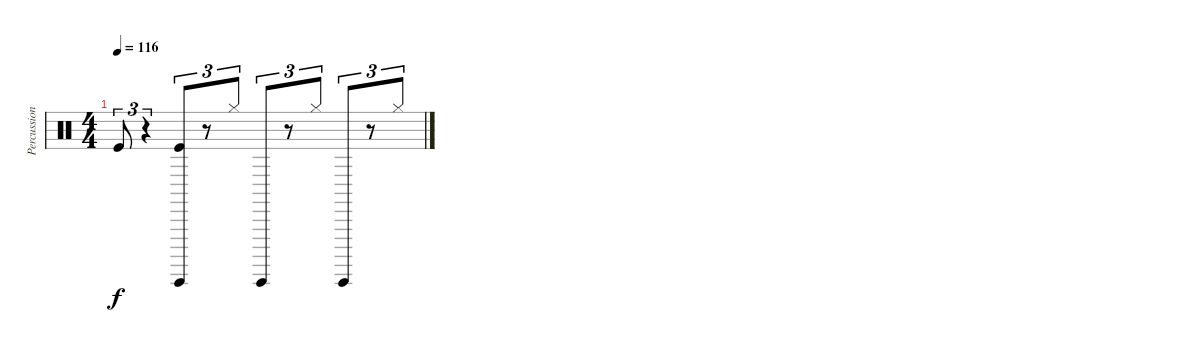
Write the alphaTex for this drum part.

\track ("Percussions" "Percussion") {instrument percussion}
\staff {score}
\articulation defaults
\ts (4 4)
\tempo 116
\clef neutral
\ks c "Kick (hit)".8{tu (3 2) dy f}
r.4{tu (3 2)} ("Guiro (hit)" "Kick (hit)").8{tu (3 2)} r.8{tu (3 2)} "Hi-Hat (closed)".8{tu (3 2)} "Guiro (hit)".8{tu (3 2)} r.8{tu (3 2)} "Hi-Hat (closed)".8{tu (3 2)} "Guiro (hit)".8{tu (3 2)} r.8{tu (3 2)} "Hi-Hat (closed)".8{tu (3 2)}
